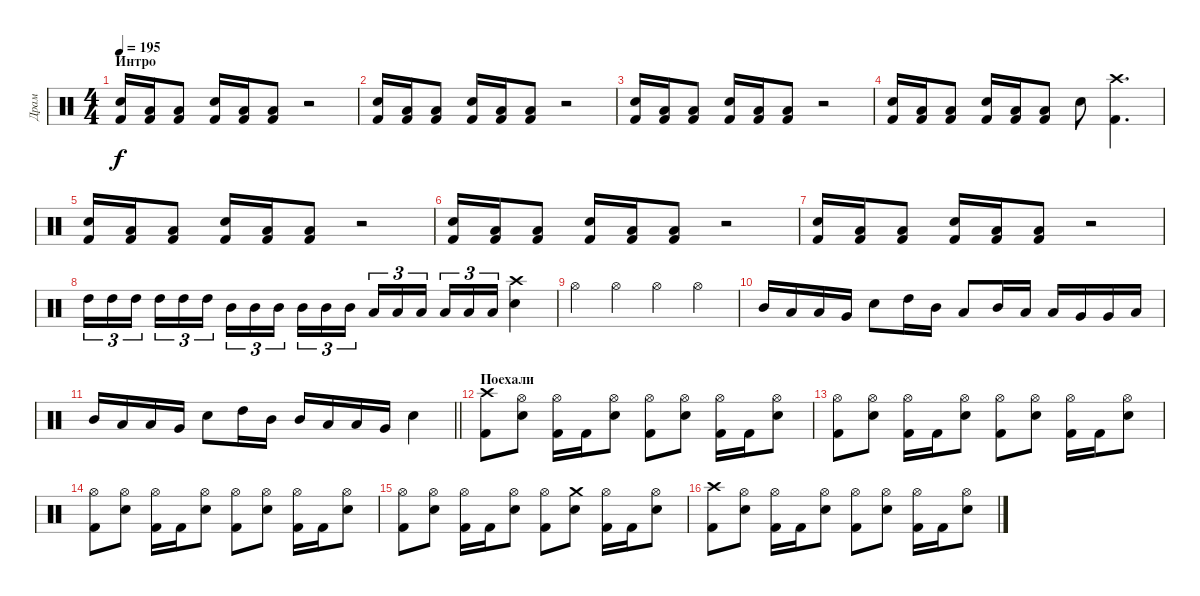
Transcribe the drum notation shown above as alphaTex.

\track ("Драм" "Драм") {instrument percussion}
\staff {score}
\articulation defaults
\ts (4 4)
\section ("" "Интро")
\tempo 195
\clef neutral
\ks c
("Snare (hit) 2" "Kick (hit) 2").16{dy f} ("Low Tom (hit)" "Kick (hit) 2").16 ("Low Tom (hit)" "Kick (hit) 2").8 ("Snare (hit) 2" "Kick (hit) 2").16 ("Low Tom (hit)" "Kick (hit) 2").16 ("Low Tom (hit)" "Kick (hit) 2").8 r.2 |
("Snare (hit) 2" "Kick (hit) 2").16 ("Low Tom (hit)" "Kick (hit) 2").16 ("Low Tom (hit)" "Kick (hit) 2").8 ("Snare (hit) 2" "Kick (hit) 2").16 ("Low Tom (hit)" "Kick (hit) 2").16 ("Low Tom (hit)" "Kick (hit) 2").8 r.2 |
("Snare (hit) 2" "Kick (hit) 2").16 ("Low Tom (hit)" "Kick (hit) 2").16 ("Low Tom (hit)" "Kick (hit) 2").8 ("Snare (hit) 2" "Kick (hit) 2").16 ("Low Tom (hit)" "Kick (hit) 2").16 ("Low Tom (hit)" "Kick (hit) 2").8 r.2 |
("Snare (hit) 2" "Kick (hit) 2").16 ("Low Tom (hit)" "Kick (hit) 2").16 ("Low Tom (hit)" "Kick (hit) 2").8 ("Snare (hit) 2" "Kick (hit) 2").16 ("Low Tom (hit)" "Kick (hit) 2").16 ("Low Tom (hit)" "Kick (hit) 2").8 "Snare (hit) 2".8 ("Kick (hit) 2" "Crash high (hit)").4{d} |
("Snare (hit) 2" "Kick (hit) 2").16 ("Low Tom (hit)" "Kick (hit) 2").16 ("Low Tom (hit)" "Kick (hit) 2").8 ("Snare (hit) 2" "Kick (hit) 2").16 ("Low Tom (hit)" "Kick (hit) 2").16 ("Low Tom (hit)" "Kick (hit) 2").8 r.2 |
("Snare (hit) 2" "Kick (hit) 2").16 ("Low Tom (hit)" "Kick (hit) 2").16 ("Low Tom (hit)" "Kick (hit) 2").8 ("Snare (hit) 2" "Kick (hit) 2").16 ("Low Tom (hit)" "Kick (hit) 2").16 ("Low Tom (hit)" "Kick (hit) 2").8 r.2 |
("Snare (hit) 2" "Kick (hit) 2").16 ("Low Tom (hit)" "Kick (hit) 2").16 ("Low Tom (hit)" "Kick (hit) 2").8 ("Snare (hit) 2" "Kick (hit) 2").16 ("Low Tom (hit)" "Kick (hit) 2").16 ("Low Tom (hit)" "Kick (hit) 2").8 r.2 |
"High Tom (hit)".16{tu (3 2)} "High Tom (hit)".16{tu (3 2)} "High Tom (hit)".16{tu (3 2) beam splitsecondary} "High Tom (hit)".16{tu (3 2)} "High Tom (hit)".16{tu (3 2)} "High Tom (hit)".16{tu (3 2)} "Mid Tom (hit)".16{tu (3 2)} "Mid Tom (hit)".16{tu (3 2)} "Mid Tom (hit)".16{tu (3 2) beam splitsecondary} "Mid Tom (hit)".16{tu (3 2)} "Mid Tom (hit)".16{tu (3 2)} "Mid Tom (hit)".16{tu (3 2)} "Low Tom (hit)".16{tu (3 2)} "Low Tom (hit)".16{tu (3 2)} "Low Tom (hit)".16{tu (3 2) beam splitsecondary} "Low Tom (hit)".16{tu (3 2)} "Low Tom (hit)".16{tu (3 2)} "Low Tom (hit)".16{tu (3 2)} ("Snare (hit) 2" "Crash high (hit)").4 |
"Hi-Hat (open)".4 "Hi-Hat (open)".4 "Hi-Hat (open)".4 "Hi-Hat (open)".4 |
"Mid Tom (hit)".16 "Low Tom (hit)".16 "Low Tom (hit)".16 "Very Low Tom (hit)".16 "Snare (hit) 2".8 "High Tom (hit)".16 "Mid Tom (hit)".16 "Low Tom (hit)".8 "Mid Tom (hit)".16 "Low Tom (hit)".16 "Low Tom (hit)".16 "Very Low Tom (hit)".16 "Very Low Tom (hit)".16 "Low Floor Tom (hit)".16 |
\barLineRight lightlight "Mid Tom (hit)".16 "Low Tom (hit)".16 "Low Tom (hit)".16 "Very Low Tom (hit)".16 "Snare (hit) 2".8 "High Tom (hit)".16 "Mid Tom (hit)".16 "Mid Tom (hit)".16 "Low Tom (hit)".16 "Low Tom (hit)".16 "Very Low Tom (hit)".16 "Snare (hit) 2".4
|
\section ("" "Поехали")
("Kick (hit) 2" "Crash high (hit)").8 ("Hi-Hat (open)" "Snare (hit) 2").8 ("Hi-Hat (open)" "Kick (hit) 2").16 "Kick (hit) 2".16 ("Hi-Hat (open)" "Snare (hit) 2").8 ("Hi-Hat (open)" "Kick (hit) 2").8 ("Hi-Hat (open)" "Snare (hit) 2").8 ("Hi-Hat (open)" "Kick (hit) 2").16 "Kick (hit) 2".16 ("Hi-Hat (open)" "Snare (hit) 2").8 |
("Hi-Hat (open)" "Kick (hit) 2").8 ("Hi-Hat (open)" "Snare (hit) 2").8 ("Hi-Hat (open)" "Kick (hit) 2").16 "Kick (hit) 2".16 ("Hi-Hat (open)" "Snare (hit) 2").8 ("Hi-Hat (open)" "Kick (hit) 2").8 ("Hi-Hat (open)" "Snare (hit) 2").8 ("Hi-Hat (open)" "Kick (hit) 2").16 "Kick (hit) 2".16 ("Hi-Hat (open)" "Snare (hit) 2").8 |
("Hi-Hat (open)" "Kick (hit) 2").8 ("Hi-Hat (open)" "Snare (hit) 2").8 ("Hi-Hat (open)" "Kick (hit) 2").16 "Kick (hit) 2".16 ("Hi-Hat (open)" "Snare (hit) 2").8 ("Hi-Hat (open)" "Kick (hit) 2").8 ("Hi-Hat (open)" "Snare (hit) 2").8 ("Hi-Hat (open)" "Kick (hit) 2").16 "Kick (hit) 2".16 ("Hi-Hat (open)" "Snare (hit) 2").8 |
("Hi-Hat (open)" "Kick (hit) 2").8 ("Hi-Hat (open)" "Snare (hit) 2").8 ("Hi-Hat (open)" "Kick (hit) 2").16 "Kick (hit) 2".16 ("Hi-Hat (open)" "Snare (hit) 2").8 ("Hi-Hat (open)" "Kick (hit) 2").8 ("Snare (hit) 2" "Crash medium (hit)").8 ("Hi-Hat (open)" "Kick (hit) 2").16 "Kick (hit) 2".16 ("Hi-Hat (open)" "Snare (hit) 2").8 |
("Kick (hit) 2" "Crash high (hit)").8 ("Hi-Hat (open)" "Snare (hit) 2").8 ("Hi-Hat (open)" "Kick (hit) 2").16 "Kick (hit) 2".16 ("Hi-Hat (open)" "Snare (hit) 2").8 ("Hi-Hat (open)" "Kick (hit) 2").8 ("Hi-Hat (open)" "Snare (hit) 2").8 ("Hi-Hat (open)" "Kick (hit) 2").16 "Kick (hit) 2".16 ("Hi-Hat (open)" "Snare (hit) 2").8
